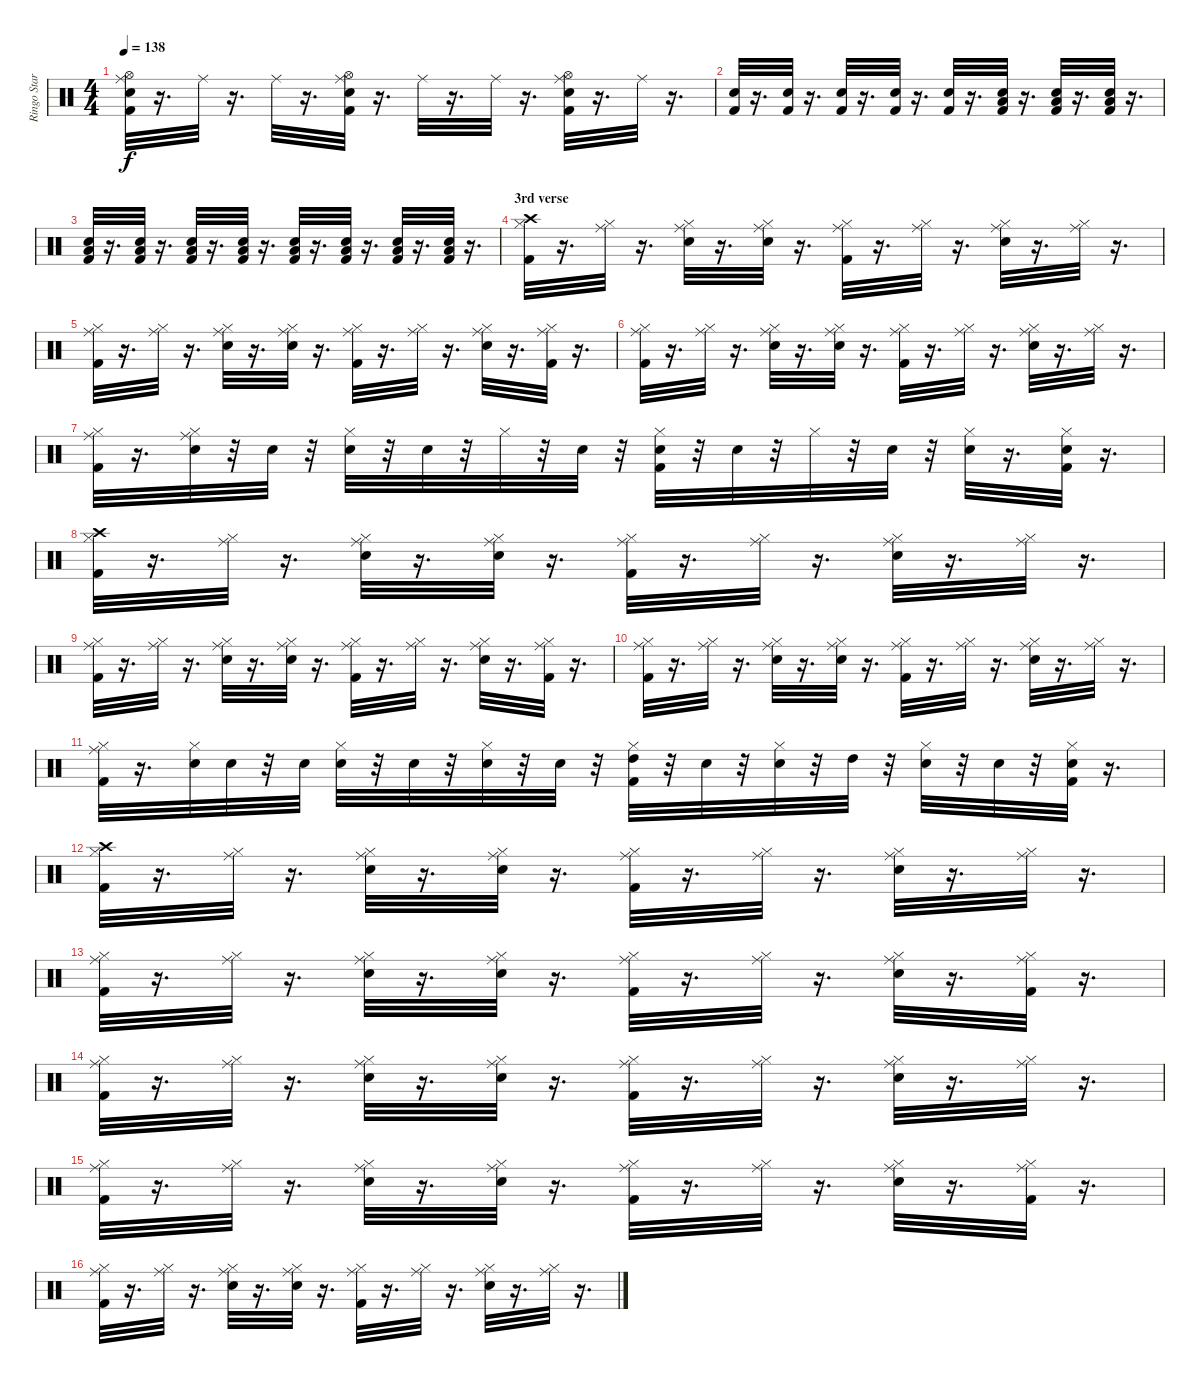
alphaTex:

\track ("Ringo Starr" "Ringo Star") {instrument percussion}
\staff {score}
\articulation defaults
\ts (4 4)
\tempo 138
\clef neutral
\ks c
("Kick (hit) 2" "Hi-Hat (open)" "Snare (hit) 2" "Ride (middle)").32{dy f} r.16{d} "Ride (middle)".32 r.16{d} "Ride (middle)".32 r.16{d} ("Kick (hit) 2" "Snare (hit) 2" "Hi-Hat (open)" "Ride (middle)").32 r.16{d} "Ride (middle)".32 r.16{d} "Ride (middle)".32 r.16{d} ("Kick (hit) 2" "Snare (hit) 2" "Hi-Hat (open)" "Ride (middle)").32 r.16{d} "Ride (middle)".32 r.16{d} |
("Kick (hit) 2" "Snare (hit) 2").32 r.16{d} ("Kick (hit) 2" "Snare (hit) 2").32 r.16{d} ("Kick (hit) 2" "Snare (hit) 2").32 r.16{d} ("Kick (hit) 2" "Snare (hit) 2").32 r.16{d} ("Kick (hit) 2" "Snare (hit) 2").32 r.16{d} ("Kick (hit) 2" "Snare (hit) 2" "Low Floor Tom (hit)").32 r.16{d} ("Kick (hit) 2" "Snare (hit) 2" "Low Floor Tom (hit)").32 r.16{d} ("Kick (hit) 2" "Snare (hit) 2" "Low Floor Tom (hit)").32 r.16{d} |
("Kick (hit) 2" "Snare (hit) 2" "Low Floor Tom (hit)").32 r.16{d} ("Kick (hit) 2" "Snare (hit) 2" "Low Floor Tom (hit)").32 r.16{d} ("Kick (hit) 2" "Snare (hit) 2" "Low Floor Tom (hit)").32 r.16{d} ("Kick (hit) 2" "Snare (hit) 2" "Low Floor Tom (hit)").32 r.16{d} ("Kick (hit) 2" "Snare (hit) 2" "Low Floor Tom (hit)").32 r.16{d} ("Kick (hit) 2" "Snare (hit) 2" "Low Floor Tom (hit)").32 r.16{d} ("Kick (hit) 2" "Snare (hit) 2" "Low Floor Tom (hit)").32 r.16{d} ("Kick (hit) 2" "Snare (hit) 2" "Low Floor Tom (hit)").32 r.16{d} |
\section ("" "3rd verse")
("Kick (hit) 2" "Hi-Hat (closed)" "Crash high (hit)").32 r.16{d} ("Hi-Hat (closed)" "Ride (middle)").32 r.16{d} ("Snare (hit) 2" "Ride (middle)" "Hi-Hat (closed)").32 r.16{d} ("Snare (hit) 2" "Ride (middle)" "Hi-Hat (closed)").32 r.16{d} ("Kick (hit) 2" "Ride (middle)" "Hi-Hat (closed)").32 r.16{d} ("Hi-Hat (closed)" "Ride (middle)").32 r.16{d} ("Snare (hit) 2" "Ride (middle)" "Hi-Hat (closed)").32 r.16{d} ("Hi-Hat (closed)" "Ride (middle)").32 r.16{d} |
("Kick (hit) 2" "Ride (middle)" "Hi-Hat (closed)").32 r.16{d} ("Hi-Hat (closed)" "Ride (middle)").32 r.16{d} ("Snare (hit) 2" "Ride (middle)" "Hi-Hat (closed)").32 r.16{d} ("Snare (hit) 2" "Ride (middle)" "Hi-Hat (closed)").32 r.16{d} ("Kick (hit) 2" "Ride (middle)" "Hi-Hat (closed)").32 r.16{d} ("Hi-Hat (closed)" "Ride (middle)").32 r.16{d} ("Snare (hit) 2" "Ride (middle)" "Hi-Hat (closed)").32 r.16{d} ("Kick (hit) 2" "Ride (middle)" "Hi-Hat (closed)").32 r.16{d} |
("Kick (hit) 2" "Hi-Hat (closed)" "Ride (middle)").32 r.16{d} ("Hi-Hat (closed)" "Ride (middle)").32 r.16{d} ("Snare (hit) 2" "Ride (middle)" "Hi-Hat (closed)").32 r.16{d} ("Snare (hit) 2" "Ride (middle)" "Hi-Hat (closed)").32 r.16{d} ("Kick (hit) 2" "Ride (middle)" "Hi-Hat (closed)").32 r.16{d} ("Hi-Hat (closed)" "Ride (middle)").32 r.16{d} ("Snare (hit) 2" "Ride (middle)" "Hi-Hat (closed)").32 r.16{d} ("Hi-Hat (closed)" "Ride (middle)").32 r.16{d} |
("Kick (hit) 2" "Ride (middle)" "Hi-Hat (closed)").32 r.16{d} ("Snare (hit) 2" "Ride (middle)" "Hi-Hat (closed)").32 r.32 "Snare (hit) 2".32 r.32 ("Snare (hit) 2" "Hi-Hat (closed)").32 r.32 "Snare (hit) 2".32 r.32 "Hi-Hat (closed)".32 r.32 "Snare (hit) 2".32 r.32 ("Kick (hit) 2" "Snare (hit) 2" "Hi-Hat (closed)").32 r.32 "Snare (hit) 2".32 r.32 "Hi-Hat (closed)".32 r.32 "Snare (hit) 2".32 r.32 ("Snare (hit) 2" "Hi-Hat (closed)").32 r.16{d} ("Kick (hit) 2" "Snare (hit) 2" "Hi-Hat (closed)").32 r.16{d} |
("Kick (hit) 2" "Hi-Hat (closed)" "Crash high (hit)").32 r.16{d} ("Hi-Hat (closed)" "Ride (middle)").32 r.16{d} ("Snare (hit) 2" "Ride (middle)" "Hi-Hat (closed)").32 r.16{d} ("Snare (hit) 2" "Ride (middle)" "Hi-Hat (closed)").32 r.16{d} ("Kick (hit) 2" "Ride (middle)" "Hi-Hat (closed)").32 r.16{d} ("Hi-Hat (closed)" "Ride (middle)").32 r.16{d} ("Snare (hit) 2" "Ride (middle)" "Hi-Hat (closed)").32 r.16{d} ("Hi-Hat (closed)" "Ride (middle)").32 r.16{d} |
("Kick (hit) 2" "Ride (middle)" "Hi-Hat (closed)").32 r.16{d} ("Hi-Hat (closed)" "Ride (middle)").32 r.16{d} ("Snare (hit) 2" "Ride (middle)" "Hi-Hat (closed)").32 r.16{d} ("Snare (hit) 2" "Ride (middle)" "Hi-Hat (closed)").32 r.16{d} ("Kick (hit) 2" "Ride (middle)" "Hi-Hat (closed)").32 r.16{d} ("Hi-Hat (closed)" "Ride (middle)").32 r.16{d} ("Snare (hit) 2" "Ride (middle)" "Hi-Hat (closed)").32 r.16{d} ("Kick (hit) 2" "Ride (middle)" "Hi-Hat (closed)").32 r.16{d} |
("Kick (hit) 2" "Hi-Hat (closed)" "Ride (middle)").32 r.16{d} ("Hi-Hat (closed)" "Ride (middle)").32 r.16{d} ("Snare (hit) 2" "Ride (middle)" "Hi-Hat (closed)").32 r.16{d} ("Snare (hit) 2" "Ride (middle)" "Hi-Hat (closed)").32 r.16{d} ("Kick (hit) 2" "Ride (middle)" "Hi-Hat (closed)").32 r.16{d} ("Hi-Hat (closed)" "Ride (middle)").32 r.16{d} ("Snare (hit) 2" "Ride (middle)" "Hi-Hat (closed)").32 r.16{d} ("Hi-Hat (closed)" "Ride (middle)").32 r.16{d} |
("Kick (hit) 2" "Ride (middle)" "Hi-Hat (closed)").32 r.16{d} ("Snare (hit) 2" "Hi-Hat (closed)").32 "Snare (hit) 2".32 r.32 "Snare (hit) 2".32 ("Snare (hit) 2" "Hi-Hat (closed)").32 r.32 "Snare (hit) 2".32 r.32 ("Snare (hit) 2" "Hi-Hat (closed)").32 r.32 "Snare (hit) 2".32 r.32 ("Kick (hit) 2" "High Tom (hit)" "Hi-Hat (closed)").32 r.32 "Snare (hit) 2".32 r.32 ("Snare (hit) 2" "Hi-Hat (closed)").32 r.32 "High Tom (hit)".32 r.32 ("Snare (hit) 2" "Hi-Hat (closed)").32 r.32 "Snare (hit) 2".32 r.32 ("Kick (hit) 2" "Snare (hit) 2" "Hi-Hat (closed)").32 r.16{d} |
("Kick (hit) 2" "Hi-Hat (closed)" "Crash high (hit)").32 r.16{d} ("Hi-Hat (closed)" "Ride (middle)").32 r.16{d} ("Snare (hit) 2" "Ride (middle)" "Hi-Hat (closed)").32 r.16{d} ("Snare (hit) 2" "Ride (middle)" "Hi-Hat (closed)").32 r.16{d} ("Kick (hit) 2" "Ride (middle)" "Hi-Hat (closed)").32 r.16{d} ("Hi-Hat (closed)" "Ride (middle)").32 r.16{d} ("Snare (hit) 2" "Ride (middle)" "Hi-Hat (closed)").32 r.16{d} ("Hi-Hat (closed)" "Ride (middle)").32 r.16{d} |
("Kick (hit) 2" "Ride (middle)" "Hi-Hat (closed)").32 r.16{d} ("Hi-Hat (closed)" "Ride (middle)").32 r.16{d} ("Snare (hit) 2" "Ride (middle)" "Hi-Hat (closed)").32 r.16{d} ("Snare (hit) 2" "Ride (middle)" "Hi-Hat (closed)").32 r.16{d} ("Kick (hit) 2" "Ride (middle)" "Hi-Hat (closed)").32 r.16{d} ("Hi-Hat (closed)" "Ride (middle)").32 r.16{d} ("Snare (hit) 2" "Ride (middle)" "Hi-Hat (closed)").32 r.16{d} ("Kick (hit) 2" "Ride (middle)" "Hi-Hat (closed)").32 r.16{d} |
("Kick (hit) 2" "Hi-Hat (closed)" "Ride (middle)").32 r.16{d} ("Hi-Hat (closed)" "Ride (middle)").32 r.16{d} ("Snare (hit) 2" "Ride (middle)" "Hi-Hat (closed)").32 r.16{d} ("Snare (hit) 2" "Ride (middle)" "Hi-Hat (closed)").32 r.16{d} ("Kick (hit) 2" "Ride (middle)" "Hi-Hat (closed)").32 r.16{d} ("Hi-Hat (closed)" "Ride (middle)").32 r.16{d} ("Snare (hit) 2" "Ride (middle)" "Hi-Hat (closed)").32 r.16{d} ("Hi-Hat (closed)" "Ride (middle)").32 r.16{d} |
("Kick (hit) 2" "Ride (middle)" "Hi-Hat (closed)").32 r.16{d} ("Hi-Hat (closed)" "Ride (middle)").32 r.16{d} ("Snare (hit) 2" "Ride (middle)" "Hi-Hat (closed)").32 r.16{d} ("Snare (hit) 2" "Ride (middle)" "Hi-Hat (closed)").32 r.16{d} ("Kick (hit) 2" "Ride (middle)" "Hi-Hat (closed)").32 r.16{d} ("Hi-Hat (closed)" "Ride (middle)").32 r.16{d} ("Snare (hit) 2" "Ride (middle)" "Hi-Hat (closed)").32 r.16{d} ("Kick (hit) 2" "Ride (middle)" "Hi-Hat (closed)").32 r.16{d} |
("Kick (hit) 2" "Hi-Hat (closed)" "Ride (middle)").32 r.16{d} ("Hi-Hat (closed)" "Ride (middle)").32 r.16{d} ("Snare (hit) 2" "Ride (middle)" "Hi-Hat (closed)").32 r.16{d} ("Snare (hit) 2" "Ride (middle)" "Hi-Hat (closed)").32 r.16{d} ("Kick (hit) 2" "Ride (middle)" "Hi-Hat (closed)").32 r.16{d} ("Hi-Hat (closed)" "Ride (middle)").32 r.16{d} ("Snare (hit) 2" "Ride (middle)" "Hi-Hat (closed)").32 r.16{d} ("Hi-Hat (closed)" "Ride (middle)").32 r.16{d}
